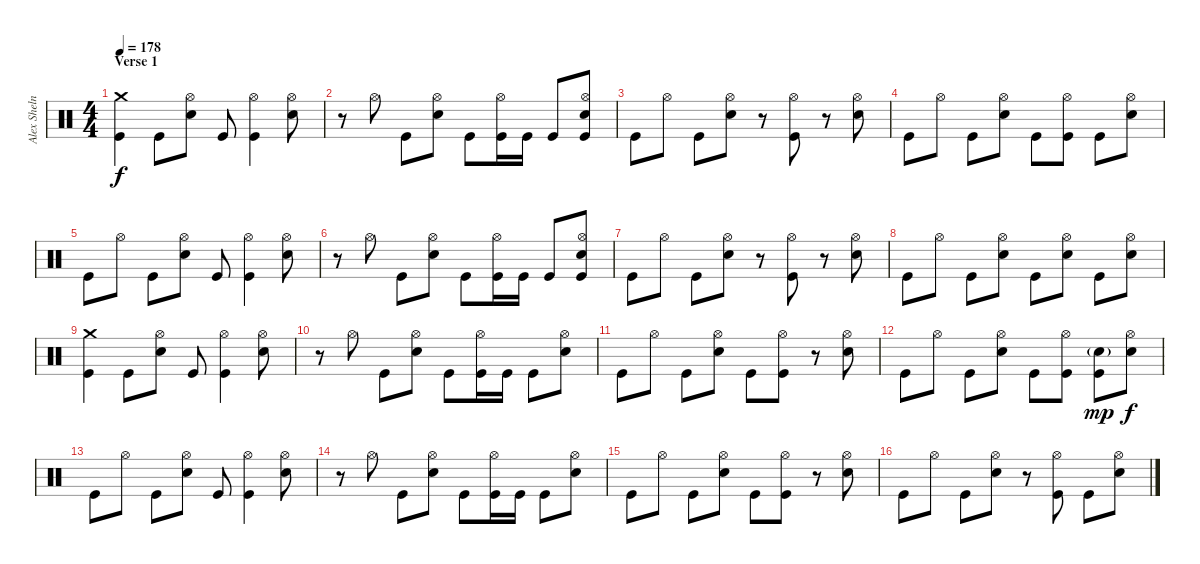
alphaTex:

\track ("Alex Shelnut" "Alex Sheln") {instrument percussion}
\staff {score}
\articulation defaults
\ts (4 4)
\section ("" "Verse 1")
\tempo 178
\clef neutral
\ks c
("Crash medium (hit)" "Kick (hit)").4{dy f} "Kick (hit)".8 ("Hi-Hat (open)" "Electric Snare (hit)").8 "Kick (hit)".8 ("Hi-Hat (open)" "Kick (hit)").4 ("Hi-Hat (open)" "Electric Snare (hit)").8 |
r.8 "Hi-Hat (open)".8 "Kick (hit)".8 ("Hi-Hat (open)" "Electric Snare (hit)").8 "Kick (hit)".8 ("Hi-Hat (open)" "Kick (hit)").16 "Kick (hit)".16 "Kick (hit)".8 ("Hi-Hat (open)" "Electric Snare (hit)" "Kick (hit)").8 |
"Kick (hit)".8 "Hi-Hat (open)".8 "Kick (hit)".8 ("Hi-Hat (open)" "Electric Snare (hit)").8 r.8 ("Hi-Hat (open)" "Kick (hit)").8 r.8 ("Hi-Hat (open)" "Electric Snare (hit)").8 |
"Kick (hit)".8 "Hi-Hat (open)".8 "Kick (hit)".8 ("Hi-Hat (open)" "Electric Snare (hit)").8 "Kick (hit)".8 ("Hi-Hat (open)" "Kick (hit)").8 "Kick (hit)".8 ("Hi-Hat (open)" "Electric Snare (hit)").8 |
"Kick (hit)".8 "Hi-Hat (open)".8 "Kick (hit)".8 ("Hi-Hat (open)" "Electric Snare (hit)").8 "Kick (hit)".8 ("Hi-Hat (open)" "Kick (hit)").4 ("Hi-Hat (open)" "Electric Snare (hit)").8 |
r.8 "Hi-Hat (open)".8 "Kick (hit)".8 ("Hi-Hat (open)" "Electric Snare (hit)").8 "Kick (hit)".8 ("Hi-Hat (open)" "Kick (hit)").16 "Kick (hit)".16 "Kick (hit)".8 ("Hi-Hat (open)" "Electric Snare (hit)" "Kick (hit)").8 |
"Kick (hit)".8 "Hi-Hat (open)".8 "Kick (hit)".8 ("Hi-Hat (open)" "Electric Snare (hit)").8 r.8 ("Hi-Hat (open)" "Kick (hit)").8 r.8 ("Hi-Hat (open)" "Electric Snare (hit)").8 |
"Kick (hit)".8 "Hi-Hat (open)".8 "Kick (hit)".8 ("Hi-Hat (open)" "Electric Snare (hit)").8 "Kick (hit)".8 ("Hi-Hat (open)" "Electric Snare (hit)").8 "Kick (hit)".8 ("Hi-Hat (open)" "Electric Snare (hit)").8 |
("Crash medium (hit)" "Kick (hit)").4 "Kick (hit)".8 ("Hi-Hat (open)" "Electric Snare (hit)").8 "Kick (hit)".8 ("Hi-Hat (open)" "Kick (hit)").4 ("Hi-Hat (open)" "Electric Snare (hit)").8 |
r.8 "Hi-Hat (open)".8 "Kick (hit)".8 ("Hi-Hat (open)" "Electric Snare (hit)").8 "Kick (hit)".8 ("Hi-Hat (open)" "Kick (hit)").16 "Kick (hit)".16 "Kick (hit)".8 ("Hi-Hat (open)" "Electric Snare (hit)").8 |
"Kick (hit)".8 "Hi-Hat (open)".8 "Kick (hit)".8 ("Hi-Hat (open)" "Electric Snare (hit)").8 "Kick (hit)".8 ("Hi-Hat (open)" "Kick (hit)").8 r.8 ("Hi-Hat (open)" "Electric Snare (hit)").8 |
"Kick (hit)".8 "Hi-Hat (open)".8 "Kick (hit)".8 ("Hi-Hat (open)" "Electric Snare (hit)").8 "Kick (hit)".8 ("Hi-Hat (open)" "Kick (hit)").8 ("Electric Snare (hit)"{g} "Kick (hit)").8{dy mp} ("Hi-Hat (open)" "Electric Snare (hit)").8{dy f} |
"Kick (hit)".8 "Hi-Hat (open)".8 "Kick (hit)".8 ("Hi-Hat (open)" "Electric Snare (hit)").8 "Kick (hit)".8 ("Hi-Hat (open)" "Kick (hit)").4 ("Hi-Hat (open)" "Electric Snare (hit)").8 |
r.8 "Hi-Hat (open)".8 "Kick (hit)".8 ("Hi-Hat (open)" "Electric Snare (hit)").8 "Kick (hit)".8 ("Hi-Hat (open)" "Kick (hit)").16 "Kick (hit)".16 "Kick (hit)".8 ("Hi-Hat (open)" "Electric Snare (hit)").8 |
"Kick (hit)".8 "Hi-Hat (open)".8 "Kick (hit)".8 ("Hi-Hat (open)" "Electric Snare (hit)").8 "Kick (hit)".8 ("Hi-Hat (open)" "Kick (hit)").8 r.8 ("Hi-Hat (open)" "Electric Snare (hit)").8 |
"Kick (hit)".8 "Hi-Hat (open)".8 "Kick (hit)".8 ("Hi-Hat (open)" "Electric Snare (hit)").8 r.8 ("Hi-Hat (open)" "Kick (hit)").8 "Kick (hit)".8 ("Hi-Hat (open)" "Electric Snare (hit)").8
